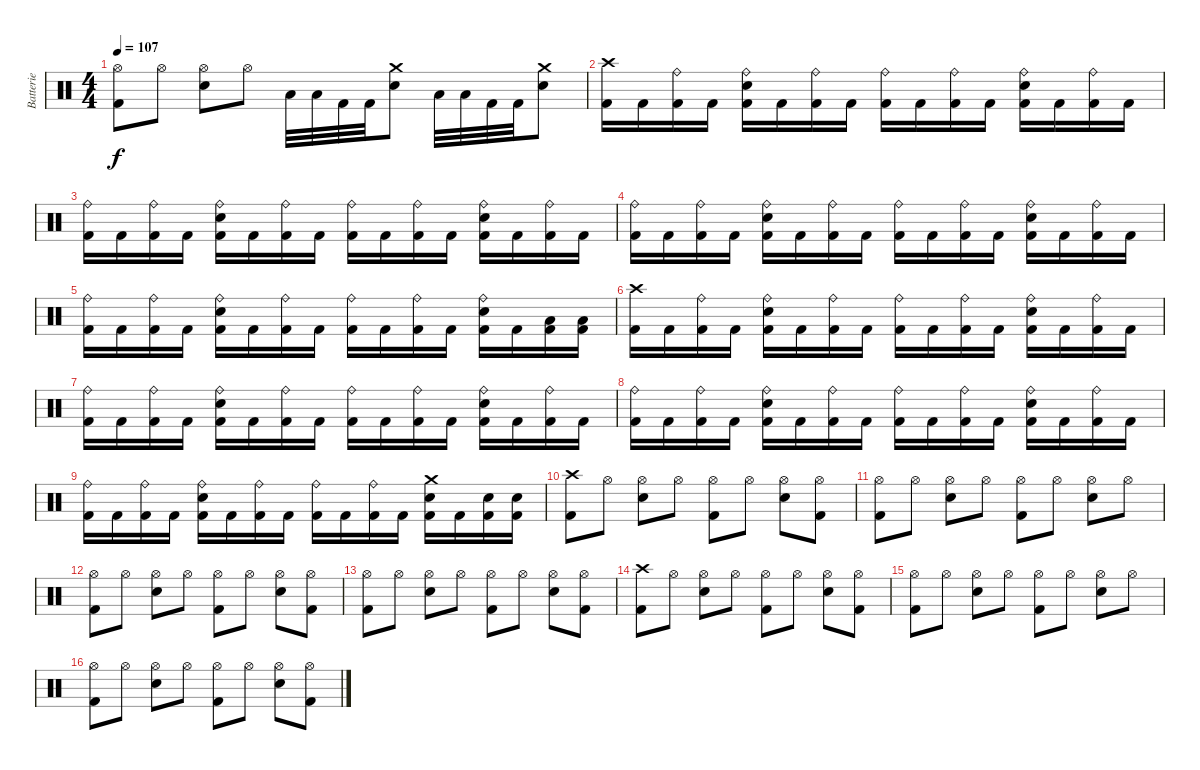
\track ("Batterie" "Batterie") {instrument percussion}
\staff {score}
\articulation defaults
\ts (4 4)
\tempo 107
\clef neutral
\ks c
("Hi-Hat (open)" "Kick (hit) 2").8{dy f} "Hi-Hat (open)".8 ("Hi-Hat (open)" "Electric Snare (hit)").8 "Hi-Hat (open)".8 "Low Tom (hit)".32 "Low Tom (hit)".32 "Kick (hit) 2".32 "Kick (hit) 2".32 ("Crash medium (hit)" "Electric Snare (hit)").8 "Low Tom (hit)".32 "Low Tom (hit)".32 "Kick (hit) 2".32 "Kick (hit) 2".32 ("Crash medium (hit)" "Electric Snare (hit)").8 |
("Crash high (hit)" "Kick (hit) 2").16 "Kick (hit) 2".16 ("Ride (bell)" "Kick (hit) 2").16 "Kick (hit) 2".16 ("Ride (bell)" "Electric Snare (hit)" "Kick (hit) 2").16 "Kick (hit) 2".16 ("Ride (bell)" "Kick (hit) 2").16 "Kick (hit) 2".16 ("Ride (bell)" "Kick (hit) 2").16 "Kick (hit) 2".16 ("Ride (bell)" "Kick (hit) 2").16 "Kick (hit) 2".16 ("Ride (bell)" "Electric Snare (hit)" "Kick (hit) 2").16 "Kick (hit) 2".16 ("Ride (bell)" "Kick (hit) 2").16 "Kick (hit) 2".16 |
("Ride (bell)" "Kick (hit) 2").16 "Kick (hit) 2".16 ("Ride (bell)" "Kick (hit) 2").16 "Kick (hit) 2".16 ("Ride (bell)" "Electric Snare (hit)" "Kick (hit) 2").16 "Kick (hit) 2".16 ("Ride (bell)" "Kick (hit) 2").16 "Kick (hit) 2".16 ("Ride (bell)" "Kick (hit) 2").16 "Kick (hit) 2".16 ("Ride (bell)" "Kick (hit) 2").16 "Kick (hit) 2".16 ("Ride (bell)" "Electric Snare (hit)" "Kick (hit) 2").16 "Kick (hit) 2".16 ("Ride (bell)" "Kick (hit) 2").16 "Kick (hit) 2".16 |
("Ride (bell)" "Kick (hit) 2").16 "Kick (hit) 2".16 ("Ride (bell)" "Kick (hit) 2").16 "Kick (hit) 2".16 ("Ride (bell)" "Electric Snare (hit)" "Kick (hit) 2").16 "Kick (hit) 2".16 ("Ride (bell)" "Kick (hit) 2").16 "Kick (hit) 2".16 ("Ride (bell)" "Kick (hit) 2").16 "Kick (hit) 2".16 ("Ride (bell)" "Kick (hit) 2").16 "Kick (hit) 2".16 ("Ride (bell)" "Electric Snare (hit)" "Kick (hit) 2").16 "Kick (hit) 2".16 ("Ride (bell)" "Kick (hit) 2").16 "Kick (hit) 2".16 |
("Ride (bell)" "Kick (hit) 2").16 "Kick (hit) 2".16 ("Ride (bell)" "Kick (hit) 2").16 "Kick (hit) 2".16 ("Ride (bell)" "Electric Snare (hit)" "Kick (hit) 2").16 "Kick (hit) 2".16 ("Ride (bell)" "Kick (hit) 2").16 "Kick (hit) 2".16 ("Ride (bell)" "Kick (hit) 2").16 "Kick (hit) 2".16 ("Ride (bell)" "Kick (hit) 2").16 "Kick (hit) 2".16 ("Ride (bell)" "Electric Snare (hit)" "Kick (hit) 2").16 "Kick (hit) 2".16 ("Low Tom (hit)" "Kick (hit) 2").16 ("Low Tom (hit)" "Kick (hit) 2").16 |
("Crash high (hit)" "Kick (hit) 2").16 "Kick (hit) 2".16 ("Ride (bell)" "Kick (hit) 2").16 "Kick (hit) 2".16 ("Ride (bell)" "Electric Snare (hit)" "Kick (hit) 2").16 "Kick (hit) 2".16 ("Ride (bell)" "Kick (hit) 2").16 "Kick (hit) 2".16 ("Ride (bell)" "Kick (hit) 2").16 "Kick (hit) 2".16 ("Ride (bell)" "Kick (hit) 2").16 "Kick (hit) 2".16 ("Ride (bell)" "Electric Snare (hit)" "Kick (hit) 2").16 "Kick (hit) 2".16 ("Ride (bell)" "Kick (hit) 2").16 "Kick (hit) 2".16 |
("Ride (bell)" "Kick (hit) 2").16 "Kick (hit) 2".16 ("Ride (bell)" "Kick (hit) 2").16 "Kick (hit) 2".16 ("Ride (bell)" "Electric Snare (hit)" "Kick (hit) 2").16 "Kick (hit) 2".16 ("Ride (bell)" "Kick (hit) 2").16 "Kick (hit) 2".16 ("Ride (bell)" "Kick (hit) 2").16 "Kick (hit) 2".16 ("Ride (bell)" "Kick (hit) 2").16 "Kick (hit) 2".16 ("Ride (bell)" "Electric Snare (hit)" "Kick (hit) 2").16 "Kick (hit) 2".16 ("Ride (bell)" "Kick (hit) 2").16 "Kick (hit) 2".16 |
("Ride (bell)" "Kick (hit) 2").16 "Kick (hit) 2".16 ("Ride (bell)" "Kick (hit) 2").16 "Kick (hit) 2".16 ("Ride (bell)" "Electric Snare (hit)" "Kick (hit) 2").16 "Kick (hit) 2".16 ("Ride (bell)" "Kick (hit) 2").16 "Kick (hit) 2".16 ("Ride (bell)" "Kick (hit) 2").16 "Kick (hit) 2".16 ("Ride (bell)" "Kick (hit) 2").16 "Kick (hit) 2".16 ("Ride (bell)" "Electric Snare (hit)" "Kick (hit) 2").16 "Kick (hit) 2".16 ("Ride (bell)" "Kick (hit) 2").16 "Kick (hit) 2".16 |
("Ride (bell)" "Kick (hit) 2").16 "Kick (hit) 2".16 ("Ride (bell)" "Kick (hit) 2").16 "Kick (hit) 2".16 ("Ride (bell)" "Electric Snare (hit)" "Kick (hit) 2").16 "Kick (hit) 2".16 ("Ride (bell)" "Kick (hit) 2").16 "Kick (hit) 2".16 ("Ride (bell)" "Kick (hit) 2").16 "Kick (hit) 2".16 ("Ride (bell)" "Kick (hit) 2").16 "Kick (hit) 2".16 ("Crash medium (hit)" "Electric Snare (hit)" "Kick (hit) 2").16 "Kick (hit) 2".16 ("Electric Snare (hit)" "Kick (hit) 2").16 ("Electric Snare (hit)" "Kick (hit) 2").16 |
("Crash high (hit)" "Kick (hit) 2").8 "Hi-Hat (open)".8 ("Hi-Hat (open)" "Electric Snare (hit)").8 "Hi-Hat (open)".8 ("Hi-Hat (open)" "Kick (hit) 2").8 "Hi-Hat (open)".8 ("Hi-Hat (open)" "Electric Snare (hit)").8 ("Hi-Hat (open)" "Kick (hit) 2").8 |
("Hi-Hat (open)" "Kick (hit) 2").8 "Hi-Hat (open)".8 ("Hi-Hat (open)" "Electric Snare (hit)").8 "Hi-Hat (open)".8 ("Hi-Hat (open)" "Kick (hit) 2").8 "Hi-Hat (open)".8 ("Hi-Hat (open)" "Electric Snare (hit)").8 "Hi-Hat (open)".8 |
("Hi-Hat (open)" "Kick (hit) 2").8 "Hi-Hat (open)".8 ("Hi-Hat (open)" "Electric Snare (hit)").8 "Hi-Hat (open)".8 ("Hi-Hat (open)" "Kick (hit) 2").8 "Hi-Hat (open)".8 ("Hi-Hat (open)" "Electric Snare (hit)").8 ("Hi-Hat (open)" "Kick (hit) 2").8 |
("Hi-Hat (open)" "Kick (hit) 2").8 "Hi-Hat (open)".8 ("Hi-Hat (open)" "Electric Snare (hit)").8 "Hi-Hat (open)".8 ("Hi-Hat (open)" "Kick (hit) 2").8 "Hi-Hat (open)".8 ("Hi-Hat (open)" "Electric Snare (hit)").8 ("Hi-Hat (open)" "Kick (hit) 2").8 |
("Crash high (hit)" "Kick (hit) 2").8 "Hi-Hat (open)".8 ("Hi-Hat (open)" "Electric Snare (hit)").8 "Hi-Hat (open)".8 ("Hi-Hat (open)" "Kick (hit) 2").8 "Hi-Hat (open)".8 ("Hi-Hat (open)" "Electric Snare (hit)").8 ("Hi-Hat (open)" "Kick (hit) 2").8 |
("Hi-Hat (open)" "Kick (hit) 2").8 "Hi-Hat (open)".8 ("Hi-Hat (open)" "Electric Snare (hit)").8 "Hi-Hat (open)".8 ("Hi-Hat (open)" "Kick (hit) 2").8 "Hi-Hat (open)".8 ("Hi-Hat (open)" "Electric Snare (hit)").8 "Hi-Hat (open)".8 |
("Hi-Hat (open)" "Kick (hit) 2").8 "Hi-Hat (open)".8 ("Hi-Hat (open)" "Electric Snare (hit)").8 "Hi-Hat (open)".8 ("Hi-Hat (open)" "Kick (hit) 2").8 "Hi-Hat (open)".8 ("Hi-Hat (open)" "Electric Snare (hit)").8 ("Hi-Hat (open)" "Kick (hit) 2").8
